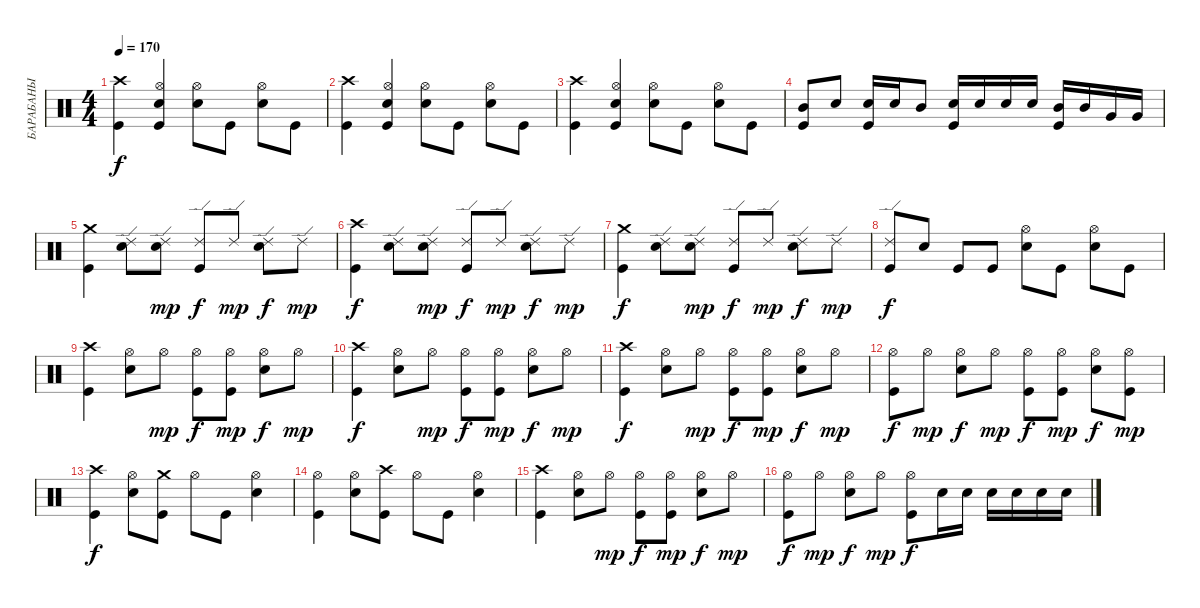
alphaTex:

\track ("БАРАБАНЫ" "БАРАБАНЫ") {instrument percussion}
\staff {score}
\articulation defaults
\ts (4 4)
\tempo 170
\clef neutral
\ks c
("Crash high (hit)" "Kick (hit)").4{dy f} ("Hi-Hat (open)" "Electric Snare (hit)" "Kick (hit)").4 ("Hi-Hat (open)" "Electric Snare (hit)").8 "Kick (hit)".8 ("Hi-Hat (open)" "Electric Snare (hit)").8 "Kick (hit)".8 |
("Crash high (hit)" "Kick (hit)").4 ("Hi-Hat (open)" "Electric Snare (hit)" "Kick (hit)").4 ("Hi-Hat (open)" "Electric Snare (hit)").8 "Kick (hit)".8 ("Hi-Hat (open)" "Electric Snare (hit)").8 "Kick (hit)".8 |
("Crash high (hit)" "Kick (hit)").4 ("Hi-Hat (open)" "Electric Snare (hit)" "Kick (hit)").4 ("Hi-Hat (open)" "Electric Snare (hit)").8 "Kick (hit)".8 ("Hi-Hat (open)" "Electric Snare (hit)").8 "Kick (hit)".8 |
("Mid Tom (hit)" "Kick (hit)").8 "Electric Snare (hit)".8 ("Electric Snare (hit)" "Kick (hit)").16 "Electric Snare (hit)".16 "Mid Tom (hit)".8 ("Electric Snare (hit)" "Kick (hit)").16 "Electric Snare (hit)".16 "Electric Snare (hit)".16 "Electric Snare (hit)".16 ("Mid Tom (hit)" "Kick (hit)").16 "Mid Tom (hit)".16 "Very Low Tom (hit)".16 "Very Low Tom (hit)".16 |
("Crash medium (hit)" "Kick (hit)").4 ("Ride (edge) 2" "Electric Snare (hit)").8 ("Ride (edge) 2" "Electric Snare (hit)").8{dy mp} ("Ride (edge) 2" "Kick (hit)").8{dy f} "Ride (edge) 2".8{dy mp} ("Ride (edge) 2" "Electric Snare (hit)").8{dy f} "Ride (edge) 2".8{dy mp} |
("Crash high (hit)" "Kick (hit)").4{dy f} ("Ride (edge) 2" "Electric Snare (hit)").8 ("Ride (edge) 2" "Electric Snare (hit)").8{dy mp} ("Ride (edge) 2" "Kick (hit)").8{dy f} "Ride (edge) 2".8{dy mp} ("Ride (edge) 2" "Electric Snare (hit)").8{dy f} "Ride (edge) 2".8{dy mp} |
("Crash medium (hit)" "Kick (hit)").4{dy f} ("Ride (edge) 2" "Electric Snare (hit)").8 ("Ride (edge) 2" "Electric Snare (hit)").8{dy mp} ("Ride (edge) 2" "Kick (hit)").8{dy f} "Ride (edge) 2".8{dy mp} ("Ride (edge) 2" "Electric Snare (hit)").8{dy f} "Ride (edge) 2".8{dy mp} |
("Ride (edge) 2" "Kick (hit)").8{dy f} "Electric Snare (hit)".8 "Kick (hit)".8 "Kick (hit)".8 ("Hi-Hat (open)" "Electric Snare (hit)").8 "Kick (hit)".8 ("Hi-Hat (open)" "Electric Snare (hit)").8 "Kick (hit)".8 |
("Crash high (hit)" "Kick (hit)").4 ("Hi-Hat (open)" "Electric Snare (hit)").8 "Hi-Hat (open)".8{dy mp} ("Hi-Hat (open)" "Kick (hit)").8{dy f} ("Hi-Hat (open)" "Kick (hit)").8{dy mp} ("Hi-Hat (open)" "Electric Snare (hit)").8{dy f} "Hi-Hat (open)".8{dy mp} |
("Crash high (hit)" "Kick (hit)").4{dy f} ("Hi-Hat (open)" "Electric Snare (hit)").8 "Hi-Hat (open)".8{dy mp} ("Hi-Hat (open)" "Kick (hit)").8{dy f} ("Hi-Hat (open)" "Kick (hit)").8{dy mp} ("Hi-Hat (open)" "Electric Snare (hit)").8{dy f} "Hi-Hat (open)".8{dy mp} |
("Crash high (hit)" "Kick (hit)").4{dy f} ("Hi-Hat (open)" "Electric Snare (hit)").8 "Hi-Hat (open)".8{dy mp} ("Hi-Hat (open)" "Kick (hit)").8{dy f} ("Hi-Hat (open)" "Kick (hit)").8{dy mp} ("Hi-Hat (open)" "Electric Snare (hit)").8{dy f} "Hi-Hat (open)".8{dy mp} |
("Hi-Hat (open)" "Kick (hit)").8{dy f} "Hi-Hat (open)".8{dy mp} ("Hi-Hat (open)" "Electric Snare (hit)").8{dy f} "Hi-Hat (open)".8{dy mp} ("Hi-Hat (open)" "Kick (hit)").8{dy f} ("Hi-Hat (open)" "Kick (hit)").8{dy mp} ("Hi-Hat (open)" "Electric Snare (hit)").8{dy f} ("Hi-Hat (open)" "Kick (hit)").8{dy mp} |
("Crash high (hit)" "Kick (hit)").4{dy f} ("Hi-Hat (open)" "Electric Snare (hit)").8 ("Crash medium (hit)" "Kick (hit)").8 "Hi-Hat (open)".8 "Kick (hit)".8 ("Hi-Hat (open)" "Electric Snare (hit)").4 |
("Hi-Hat (open)" "Kick (hit)").4 ("Hi-Hat (open)" "Electric Snare (hit)").8 ("Crash high (hit)" "Kick (hit)").8 "Hi-Hat (open)".8 "Kick (hit)".8 ("Hi-Hat (open)" "Electric Snare (hit)").4 |
("Crash high (hit)" "Kick (hit)").4 ("Hi-Hat (open)" "Electric Snare (hit)").8 "Hi-Hat (open)".8{dy mp} ("Hi-Hat (open)" "Kick (hit)").8{dy f} ("Hi-Hat (open)" "Kick (hit)").8{dy mp} ("Hi-Hat (open)" "Electric Snare (hit)").8{dy f} "Hi-Hat (open)".8{dy mp} |
("Hi-Hat (open)" "Kick (hit)").8{dy f} "Hi-Hat (open)".8{dy mp} ("Hi-Hat (open)" "Electric Snare (hit)").8{dy f} "Hi-Hat (open)".8{dy mp} ("Hi-Hat (open)" "Kick (hit)").8{dy f} "Electric Snare (hit)".16 "Electric Snare (hit)".16 "Electric Snare (hit)".16 "Electric Snare (hit)".16 "Electric Snare (hit)".16 "Electric Snare (hit)".16
